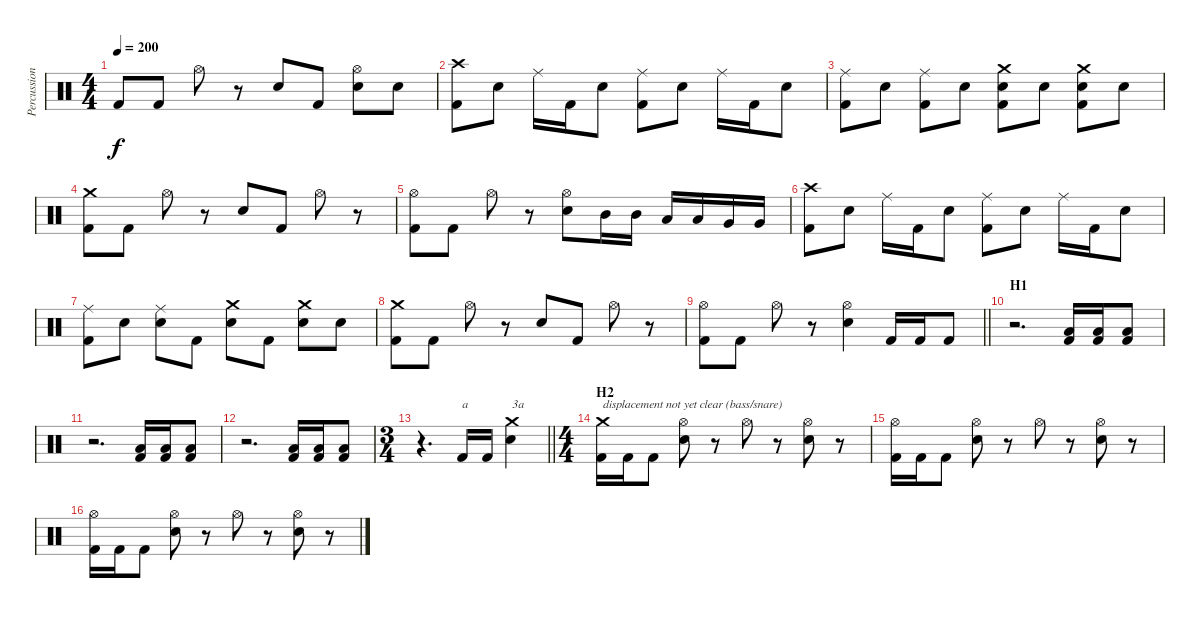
\track ("Percussion" "Percussion") {instrument percussion}
\staff {score}
\articulation defaults
\ts (4 4)
\tempo 200
\clef neutral
\ks c "Kick (hit) 2".8{dy f} "Kick (hit) 2".8 "Hi-Hat (open)".8
r.8 "Electric Snare (hit)".8 "Kick (hit) 2".8 ("Hi-Hat (open)" "Electric Snare (hit)").8 "Electric Snare (hit)".8 |
("Crash high (hit)" "Kick (hit) 2").8 "Electric Snare (hit)".8 "Ride (middle)".16 "Kick (hit) 2".16 "Electric Snare (hit)".8 ("Ride (middle)" "Kick (hit) 2").8 "Electric Snare (hit)".8 "Ride (middle)".16 "Kick (hit) 2".16 "Electric Snare (hit)".8 |
("Ride (middle)" "Kick (hit) 2").8 "Electric Snare (hit)".8 ("Ride (middle)" "Kick (hit) 2").8 "Electric Snare (hit)".8 ("Crash medium (hit)" "Electric Snare (hit)" "Kick (hit) 2").8 "Electric Snare (hit)".8 ("Crash medium (hit)" "Electric Snare (hit)" "Kick (hit) 2").8 "Electric Snare (hit)".8 |
("Crash medium (hit)" "Kick (hit) 2").8 "Kick (hit) 2".8 "Hi-Hat (open)".8 r.8 "Electric Snare (hit)".8 "Kick (hit) 2".8 "Hi-Hat (open)".8 r.8 |
("Hi-Hat (open)" "Kick (hit) 2").8 "Kick (hit) 2".8 "Hi-Hat (open)".8 r.8 ("Hi-Hat (open)" "Electric Snare (hit)").8 "Mid Tom (hit)".16 "Mid Tom (hit)".16 "Low Tom (hit)".16 "Low Tom (hit)".16 "Very Low Tom (hit)".16 "Very Low Tom (hit)".16 |
("Crash high (hit)" "Kick (hit) 2").8 "Electric Snare (hit)".8 "Ride (middle)".16 "Kick (hit) 2".16 "Electric Snare (hit)".8 ("Ride (middle)" "Kick (hit) 2").8 "Electric Snare (hit)".8 "Ride (middle)".16 "Kick (hit) 2".16 "Electric Snare (hit)".8 |
("Ride (middle)" "Kick (hit) 2").8 "Electric Snare (hit)".8 ("Ride (middle)" "Electric Snare (hit)").8 "Kick (hit) 2".8 ("Crash medium (hit)" "Electric Snare (hit)").8 "Kick (hit) 2".8 ("Crash medium (hit)" "Electric Snare (hit)").8 "Electric Snare (hit)".8 |
("Crash medium (hit)" "Kick (hit) 2").8 "Kick (hit) 2".8 "Hi-Hat (open)".8 r.8 "Electric Snare (hit)".8 "Kick (hit) 2".8 "Hi-Hat (open)".8 r.8 |
\barLineRight lightlight
("Hi-Hat (open)" "Kick (hit) 2").8 "Kick (hit) 2".8 "Hi-Hat (open)".8 r.8 ("Hi-Hat (open)" "Electric Snare (hit)").4 "Kick (hit) 2".16 "Kick (hit) 2".16 "Kick (hit) 2".8 |
\section ("" "H1")
r.2{d} ("Low Floor Tom (hit)" "Kick (hit) 2").16 ("Low Floor Tom (hit)" "Kick (hit) 2").16 ("Low Floor Tom (hit)" "Kick (hit) 2").8 |
r.2{d} ("Low Floor Tom (hit)" "Kick (hit) 2").16 ("Low Floor Tom (hit)" "Kick (hit) 2").16 ("Low Floor Tom (hit)" "Kick (hit) 2").8 |
r.2{d} ("Low Floor Tom (hit)" "Kick (hit) 2").16 ("Low Floor Tom (hit)" "Kick (hit) 2").16 ("Low Floor Tom (hit)" "Kick (hit) 2").8 |
\ts (3 4)
\barLineRight lightlight
r.4{d} "Kick (hit) 2".16{txt "a"} "Kick (hit) 2".16 ("Crash medium (hit)" "Electric Snare (hit)").4{txt "3a"} |
\ts (4 4)
\section ("" "H2")
("Crash medium (hit)" "Kick (hit) 2").16{txt "displacement not yet clear (bass/snare)"} "Kick (hit) 2".16 "Kick (hit) 2".8 ("Hi-Hat (open)" "Electric Snare (hit)").8 r.8 "Hi-Hat (open)".8 r.8 ("Hi-Hat (open)" "Electric Snare (hit)").8 r.8 |
("Hi-Hat (open)" "Kick (hit) 2").16 "Kick (hit) 2".16 "Kick (hit) 2".8 ("Hi-Hat (open)" "Electric Snare (hit)").8 r.8 "Hi-Hat (open)".8 r.8 ("Hi-Hat (open)" "Electric Snare (hit)").8 r.8 |
("Hi-Hat (open)" "Kick (hit) 2").16 "Kick (hit) 2".16 "Kick (hit) 2".8 ("Hi-Hat (open)" "Electric Snare (hit)").8 r.8 "Hi-Hat (open)".8 r.8 ("Hi-Hat (open)" "Electric Snare (hit)").8 r.8
